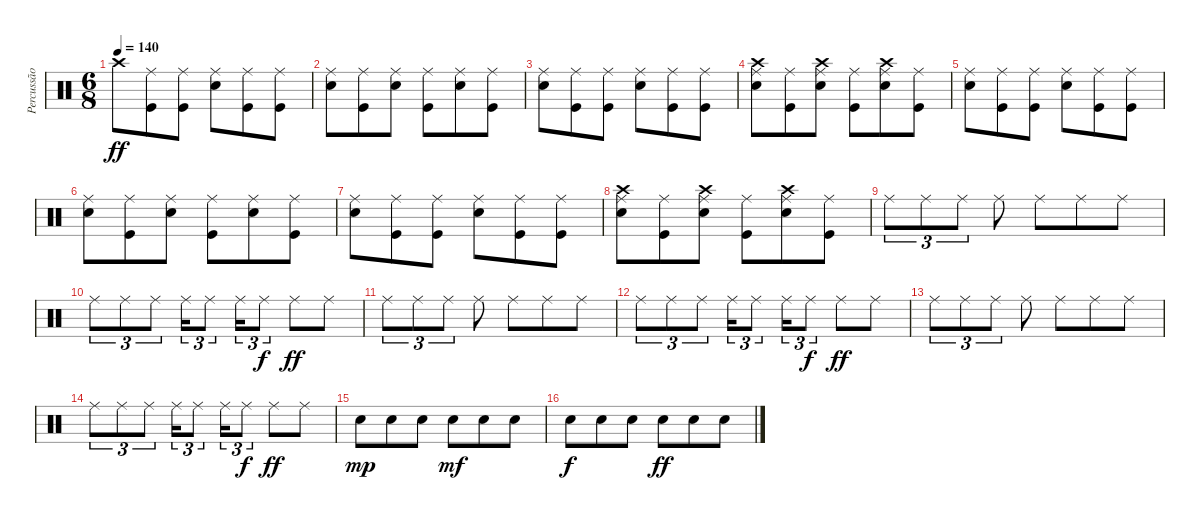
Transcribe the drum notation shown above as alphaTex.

\track ("Percussão" "Percussão") {instrument percussion}
\staff {score}
\articulation defaults
\ts (6 8)
\tempo 140
\clef neutral
\ks c "Crash high (hit)".8{dy ff}
("Ride (middle)" "Kick (hit)").8 ("Ride (middle)" "Kick (hit)").8 ("Ride (middle)" "Snare (hit) 2").8 ("Ride (middle)" "Kick (hit)").8 ("Ride (middle)" "Kick (hit)").8 |
("Ride (middle)" "Snare (hit) 2").8 ("Ride (middle)" "Kick (hit)").8 ("Ride (middle)" "Snare (hit) 2").8 ("Ride (middle)" "Kick (hit)").8 ("Ride (middle)" "Snare (hit) 2").8 ("Ride (middle)" "Kick (hit)").8 |
("Ride (middle)" "Snare (hit) 2").8 ("Ride (middle)" "Kick (hit)").8 ("Ride (middle)" "Kick (hit)").8 ("Ride (middle)" "Snare (hit) 2").8 ("Ride (middle)" "Kick (hit)").8 ("Ride (middle)" "Kick (hit)").8 |
("Crash high (hit)" "Ride (middle)" "Snare (hit) 2").8 ("Ride (middle)" "Kick (hit)").8 ("Crash high (hit)" "Ride (middle)" "Snare (hit) 2").8 ("Ride (middle)" "Kick (hit)").8 ("Crash high (hit)" "Ride (middle)" "Snare (hit) 2").8 ("Ride (middle)" "Kick (hit)").8 |
("Ride (middle)" "Snare (hit) 2").8 ("Ride (middle)" "Kick (hit)").8 ("Ride (middle)" "Kick (hit)").8 ("Ride (middle)" "Snare (hit) 2").8 ("Ride (middle)" "Kick (hit)").8 ("Ride (middle)" "Kick (hit)").8 |
("Ride (middle)" "Snare (hit) 2").8 ("Ride (middle)" "Kick (hit)").8 ("Ride (middle)" "Snare (hit) 2").8 ("Ride (middle)" "Kick (hit)").8 ("Ride (middle)" "Snare (hit) 2").8 ("Ride (middle)" "Kick (hit)").8 |
("Ride (middle)" "Snare (hit) 2").8 ("Ride (middle)" "Kick (hit)").8 ("Ride (middle)" "Kick (hit)").8 ("Ride (middle)" "Snare (hit) 2").8 ("Ride (middle)" "Kick (hit)").8 ("Ride (middle)" "Kick (hit)").8 |
("Crash high (hit)" "Ride (middle)" "Snare (hit) 2").8 ("Ride (middle)" "Kick (hit)").8 ("Crash high (hit)" "Ride (middle)" "Snare (hit) 2").8 ("Ride (middle)" "Kick (hit)").8 ("Crash high (hit)" "Ride (middle)" "Snare (hit) 2").8 ("Ride (middle)" "Kick (hit)").8 |
"Ride (middle)".8{tu (3 2)} "Ride (middle)".8{tu (3 2)} "Ride (middle)".8{tu (3 2)} "Ride (middle)".8 "Ride (middle)".8 "Ride (middle)".8 "Ride (middle)".8 |
"Ride (middle)".8{tu (3 2)} "Ride (middle)".8{tu (3 2)} "Ride (middle)".8{tu (3 2)} "Ride (middle)".16{tu (3 2)} "Ride (middle)".8{tu (3 2)} "Ride (middle)".16{tu (3 2)} "Ride (middle)".8{tu (3 2) dy f} "Ride (middle)".8{dy ff} "Ride (middle)".8 |
"Ride (middle)".8{tu (3 2)} "Ride (middle)".8{tu (3 2)} "Ride (middle)".8{tu (3 2)} "Ride (middle)".8 "Ride (middle)".8 "Ride (middle)".8 "Ride (middle)".8 |
"Ride (middle)".8{tu (3 2)} "Ride (middle)".8{tu (3 2)} "Ride (middle)".8{tu (3 2)} "Ride (middle)".16{tu (3 2)} "Ride (middle)".8{tu (3 2)} "Ride (middle)".16{tu (3 2)} "Ride (middle)".8{tu (3 2) dy f} "Ride (middle)".8{dy ff} "Ride (middle)".8 |
"Ride (middle)".8{tu (3 2)} "Ride (middle)".8{tu (3 2)} "Ride (middle)".8{tu (3 2)} "Ride (middle)".8 "Ride (middle)".8 "Ride (middle)".8 "Ride (middle)".8 |
"Ride (middle)".8{tu (3 2)} "Ride (middle)".8{tu (3 2)} "Ride (middle)".8{tu (3 2)} "Ride (middle)".16{tu (3 2)} "Ride (middle)".8{tu (3 2)} "Ride (middle)".16{tu (3 2)} "Ride (middle)".8{tu (3 2) dy f} "Ride (middle)".8{dy ff} "Ride (middle)".8 |
"Snare (hit) 2".8{dy mp} "Snare (hit) 2".8 "Snare (hit) 2".8 "Snare (hit) 2".8{dy mf} "Snare (hit) 2".8 "Snare (hit) 2".8 |
"Snare (hit) 2".8{dy f} "Snare (hit) 2".8 "Snare (hit) 2".8 "Snare (hit) 2".8{dy ff} "Snare (hit) 2".8 "Snare (hit) 2".8
